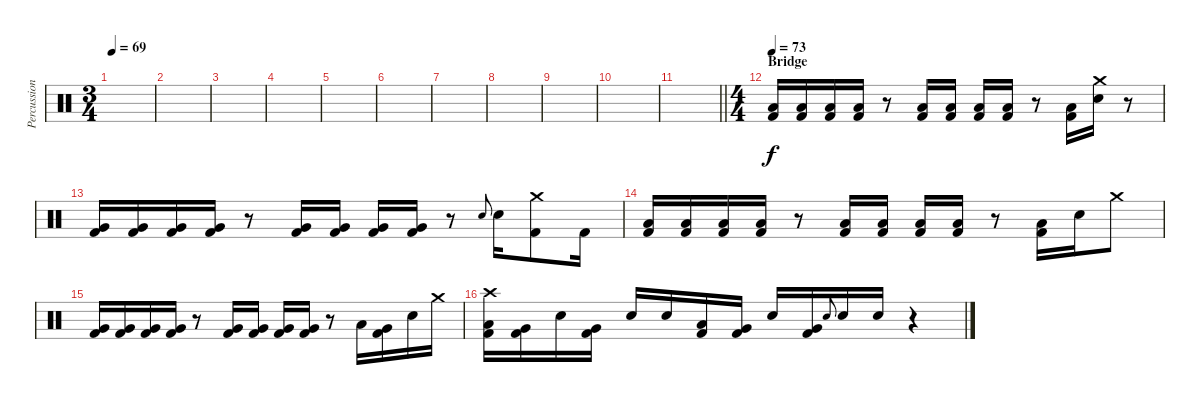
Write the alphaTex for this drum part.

\track ("Percussion" "Percussion") {instrument percussion}
\staff {score}
\articulation defaults
\ts (3 4)
\tempo 69
\clef neutral
\ks c
|
|
|
|
|
|
|
|
|
|
\barLineRight lightlight
|
\ts (4 4)
\section ("" "Bridge")
\tempo 73
("Low Tom (hit)" "Kick (hit) 2").16 ("Low Tom (hit)" "Kick (hit) 2").16 ("Low Tom (hit)" "Kick (hit) 2").16 ("Low Tom (hit)" "Kick (hit) 2").16 r.8 ("Low Tom (hit)" "Kick (hit) 2").16 ("Low Tom (hit)" "Kick (hit) 2").16 ("Low Tom (hit)" "Kick (hit) 2").16 ("Low Tom (hit)" "Kick (hit) 2").16 r.8 ("Low Tom (hit)" "Kick (hit) 2").16 ("Crash medium (hit)" "Snare (hit) 2").16 r.8 |
("Very Low Tom (hit)" "Kick (hit) 2").16 ("Very Low Tom (hit)" "Kick (hit) 2").16 ("Very Low Tom (hit)" "Kick (hit) 2").16 ("Very Low Tom (hit)" "Kick (hit) 2").16 r.8 ("Very Low Tom (hit)" "Kick (hit) 2").16 ("Very Low Tom (hit)" "Kick (hit) 2").16 ("Very Low Tom (hit)" "Kick (hit) 2").16 ("Very Low Tom (hit)" "Kick (hit) 2").16 r.8 "Snare (hit) 2".8{gr onbeat} "Snare (hit) 2".16 ("Crash medium (hit)" "Kick (hit) 2").8 "Kick (hit) 2".16 |
("Low Tom (hit)" "Kick (hit) 2").16 ("Low Tom (hit)" "Kick (hit) 2").16 ("Low Tom (hit)" "Kick (hit) 2").16 ("Low Tom (hit)" "Kick (hit) 2").16 r.8 ("Low Tom (hit)" "Kick (hit) 2").16 ("Low Tom (hit)" "Kick (hit) 2").16 ("Low Tom (hit)" "Kick (hit) 2").16 ("Low Tom (hit)" "Kick (hit) 2").16 r.8 ("Low Tom (hit)" "Kick (hit) 2").16 "Snare (hit) 2".16 "Crash medium (hit)".8 |
("Very Low Tom (hit)" "Kick (hit) 2").16 ("Very Low Tom (hit)" "Kick (hit) 2").16 ("Very Low Tom (hit)" "Kick (hit) 2").16 ("Very Low Tom (hit)" "Kick (hit) 2").16 r.8 ("Very Low Tom (hit)" "Kick (hit) 2").16 ("Very Low Tom (hit)" "Kick (hit) 2").16 ("Very Low Tom (hit)" "Kick (hit) 2").16 ("Very Low Tom (hit)" "Kick (hit) 2").16 r.8 "Low Tom (hit)".16 ("Very Low Tom (hit)" "Kick (hit) 2").16 "Snare (hit) 2".16 "Crash medium (hit)".16 |
("Crash high (hit)" "Low Tom (hit)" "Kick (hit) 2").16 ("Very Low Tom (hit)" "Kick (hit) 2").16 "Snare (hit) 2".16 ("Very Low Tom (hit)" "Kick (hit) 2").16 "Snare (hit) 2".16 "Snare (hit) 2".16 ("Low Tom (hit)" "Kick (hit) 2").16 ("Very Low Tom (hit)" "Kick (hit) 2").16 "Snare (hit) 2".16 ("Very Low Tom (hit)" "Kick (hit) 2").16 "Snare (hit) 2".8{gr onbeat} "Snare (hit) 2".16 "Snare (hit) 2".16 r.4
